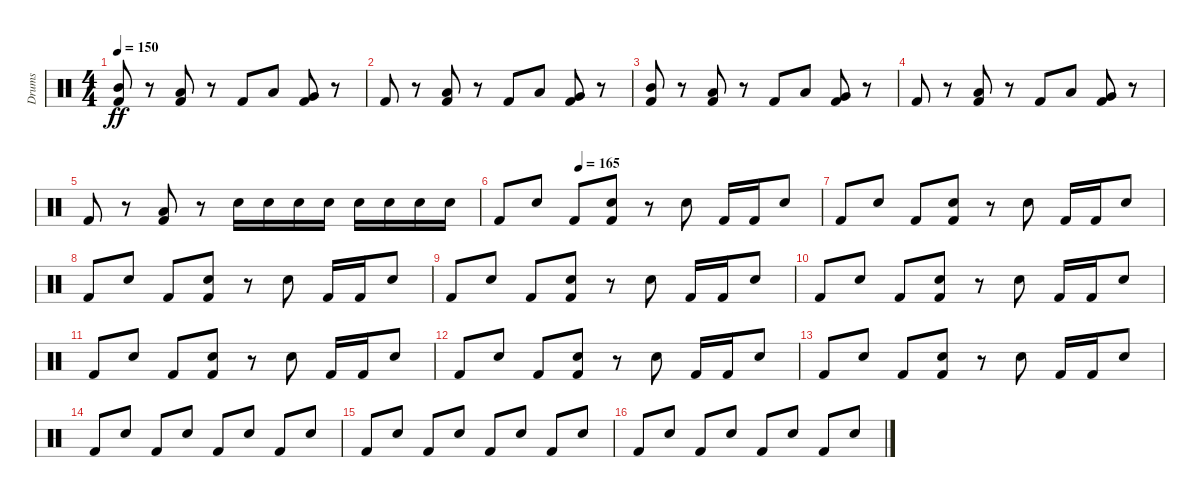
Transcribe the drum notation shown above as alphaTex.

\track ("Drums" "Drums") {instrument percussion}
\staff {score}
\articulation defaults
\ts (4 4)
\tempo 150
\clef neutral
\ks c
("Kick (hit) 2" "Mid Tom (hit)").8{dy ff} r.8 ("Kick (hit) 2" "Low Tom (hit)").8 r.8 "Kick (hit) 2".8 "Low Tom (hit)".8 ("Kick (hit) 2" "Very Low Tom (hit)").8 r.8 |
"Kick (hit) 2".8 r.8 ("Kick (hit) 2" "Low Tom (hit)").8 r.8 "Kick (hit) 2".8 "Low Tom (hit)".8 ("Kick (hit) 2" "Very Low Tom (hit)").8 r.8 |
("Mid Tom (hit)" "Kick (hit) 2").8 r.8 ("Kick (hit) 2" "Low Tom (hit)").8 r.8 "Kick (hit) 2".8 "Low Tom (hit)".8 ("Kick (hit) 2" "Very Low Tom (hit)").8 r.8 |
"Kick (hit) 2".8 r.8 ("Low Tom (hit)" "Kick (hit) 2").8 r.8 "Kick (hit) 2".8 "Low Tom (hit)".8 ("Very Low Tom (hit)" "Kick (hit) 2").8 r.8 |
"Kick (hit) 2".8 r.8 ("Kick (hit) 2" "Low Tom (hit)").8 r.8 "Snare (hit) 2".16 "Snare (hit) 2".16 "Snare (hit) 2".16 "Snare (hit) 2".16 "Snare (hit) 2".16 "Snare (hit) 2".16 "Snare (hit) 2".16 "Snare (hit) 2".16 |
\tempo (165 0.25)
"Kick (hit) 2".8 "Snare (hit) 2".8 "Kick (hit) 2".8 ("Snare (hit) 2" "Kick (hit) 2").8 r.8 "Snare (hit) 2".8 "Kick (hit) 2".16 "Kick (hit) 2".16 "Snare (hit) 2".8 |
"Kick (hit) 2".8 "Snare (hit) 2".8 "Kick (hit) 2".8 ("Kick (hit) 2" "Snare (hit) 2").8 r.8 "Snare (hit) 2".8 "Kick (hit) 2".16 "Kick (hit) 2".16 "Snare (hit) 2".8 |
"Kick (hit) 2".8 "Snare (hit) 2".8 "Kick (hit) 2".8 ("Snare (hit) 2" "Kick (hit) 2").8 r.8 "Snare (hit) 2".8 "Kick (hit) 2".16 "Kick (hit) 2".16 "Snare (hit) 2".8 |
"Kick (hit) 2".8 "Snare (hit) 2".8 "Kick (hit) 2".8 ("Kick (hit) 2" "Snare (hit) 2").8 r.8 "Snare (hit) 2".8 "Kick (hit) 2".16 "Kick (hit) 2".16 "Snare (hit) 2".8 |
"Kick (hit) 2".8 "Snare (hit) 2".8 "Kick (hit) 2".8 ("Snare (hit) 2" "Kick (hit) 2").8 r.8 "Snare (hit) 2".8 "Kick (hit) 2".16 "Kick (hit) 2".16 "Snare (hit) 2".8 |
"Kick (hit) 2".8 "Snare (hit) 2".8 "Kick (hit) 2".8 ("Kick (hit) 2" "Snare (hit) 2").8 r.8 "Snare (hit) 2".8 "Kick (hit) 2".16 "Kick (hit) 2".16 "Snare (hit) 2".8 |
"Kick (hit) 2".8 "Snare (hit) 2".8 "Kick (hit) 2".8 ("Snare (hit) 2" "Kick (hit) 2").8 r.8 "Snare (hit) 2".8 "Kick (hit) 2".16 "Kick (hit) 2".16 "Snare (hit) 2".8 |
"Kick (hit) 2".8 "Snare (hit) 2".8 "Kick (hit) 2".8 ("Kick (hit) 2" "Snare (hit) 2").8 r.8 "Snare (hit) 2".8 "Kick (hit) 2".16 "Kick (hit) 2".16 "Snare (hit) 2".8 |
"Kick (hit) 2".8 "Snare (hit) 2".8 "Kick (hit) 2".8 "Snare (hit) 2".8 "Kick (hit) 2".8 "Snare (hit) 2".8 "Kick (hit) 2".8 "Snare (hit) 2".8 |
"Kick (hit) 2".8 "Snare (hit) 2".8 "Kick (hit) 2".8 "Snare (hit) 2".8 "Kick (hit) 2".8 "Snare (hit) 2".8 "Kick (hit) 2".8 "Snare (hit) 2".8 |
"Kick (hit) 2".8 "Snare (hit) 2".8 "Kick (hit) 2".8 "Snare (hit) 2".8 "Kick (hit) 2".8 "Snare (hit) 2".8 "Kick (hit) 2".8 "Snare (hit) 2".8
